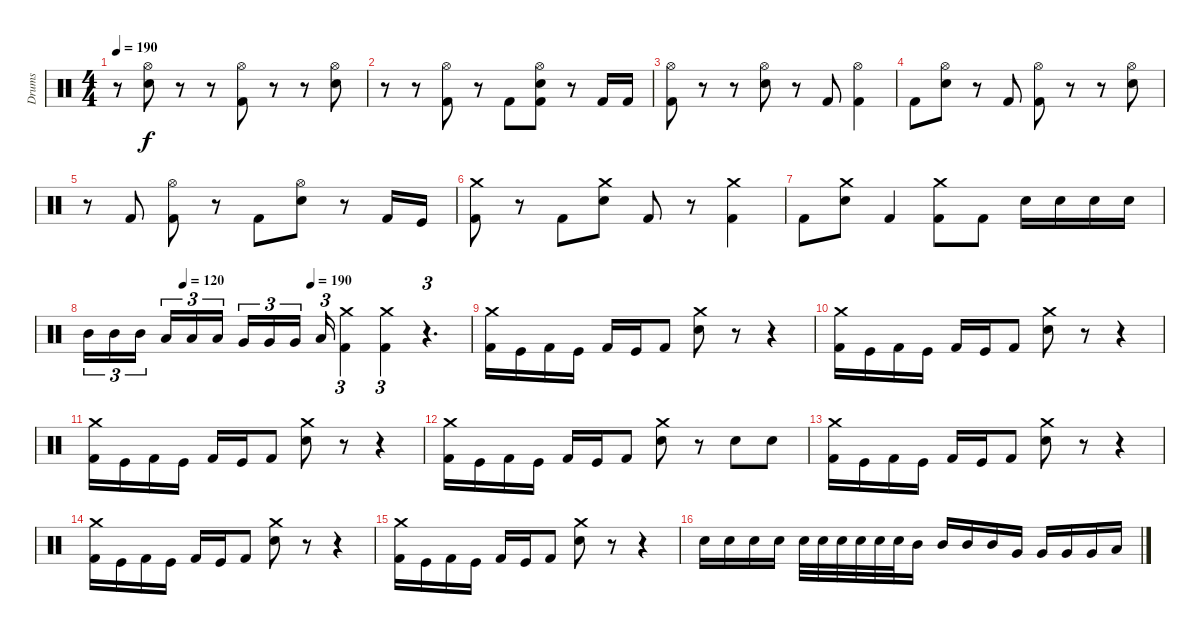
\track ("Drums" "Drums") {instrument percussion}
\staff {score}
\articulation defaults
\ts (4 4)
\tempo 190
\clef neutral
\ks c
r.8{dy f} ("Hi-Hat (open)" "Electric Snare (hit)").8 r.8 r.8 ("Hi-Hat (open)" "Kick (hit) 2").8 r.8 r.8 ("Hi-Hat (open)" "Electric Snare (hit)").8 |
r.8 r.8 ("Hi-Hat (open)" "Kick (hit) 2").8 r.8 "Kick (hit) 2".8 ("Hi-Hat (open)" "Electric Snare (hit)" "Kick (hit) 2").8 r.8 "Kick (hit) 2".16 "Kick (hit) 2".16 |
("Hi-Hat (open)" "Kick (hit) 2").8 r.8 r.8 ("Hi-Hat (open)" "Electric Snare (hit)").8 r.8 "Kick (hit) 2".8 ("Hi-Hat (open)" "Kick (hit) 2").4 |
"Kick (hit) 2".8 ("Hi-Hat (open)" "Electric Snare (hit)").8 r.8 "Kick (hit) 2".8 ("Hi-Hat (open)" "Kick (hit) 2").8 r.8 r.8 ("Hi-Hat (open)" "Electric Snare (hit)").8 |
r.8 "Kick (hit) 2".8 ("Hi-Hat (open)" "Kick (hit) 2").8 r.8 "Kick (hit) 2".8 ("Hi-Hat (open)" "Electric Snare (hit)").8 r.8 "Kick (hit) 2".16 "Kick (hit)".16 |
("Crash medium (hit)" "Kick (hit) 2").8 r.8 "Kick (hit) 2".8 ("Crash medium (hit)" "Electric Snare (hit)").8 "Kick (hit) 2".8 r.8 ("Crash medium (hit)" "Kick (hit) 2").4 |
"Kick (hit) 2".8 ("Crash medium (hit)" "Electric Snare (hit)").8 "Kick (hit) 2".4 ("Crash medium (hit)" "Kick (hit) 2").8 "Kick (hit) 2".8 "Electric Snare (hit)".16 "Electric Snare (hit)".16 "Electric Snare (hit)".16 "Electric Snare (hit)".16 |
\tempo (120 0.25)
\tempo (190 0.5833333333333334)
"Mid Tom (hit)".16{tu (3 2)} "Mid Tom (hit)".16{tu (3 2)} "Mid Tom (hit)".16{tu (3 2)} "Low Tom (hit)".16{tu (3 2)} "Low Tom (hit)".16{tu (3 2)} "Low Tom (hit)".16{tu (3 2)} "Very Low Tom (hit)".16{tu (3 2)} "Very Low Tom (hit)".16{tu (3 2)} "Very Low Tom (hit)".16{tu (3 2)} "Low Floor Tom (hit)".16{tu (3 2)} ("Crash medium (hit)" "Kick (hit) 2").4{tu (3 2)} ("Crash medium (hit)" "Kick (hit) 2").4{tu (3 2)} r.4{d tu (3 2)} |
("Crash medium (hit)" "Kick (hit) 2").16 "Kick (hit)".16 "Kick (hit) 2".16 "Kick (hit)".16 "Kick (hit) 2".16 "Kick (hit)".16 "Kick (hit) 2".8 ("Crash medium (hit)" "Electric Snare (hit)").8 r.8 r.4 |
("Crash medium (hit)" "Kick (hit) 2").16 "Kick (hit)".16 "Kick (hit) 2".16 "Kick (hit)".16 "Kick (hit) 2".16 "Kick (hit)".16 "Kick (hit) 2".8 ("Crash medium (hit)" "Electric Snare (hit)").8 r.8 r.4 |
("Crash medium (hit)" "Kick (hit) 2").16 "Kick (hit)".16 "Kick (hit) 2".16 "Kick (hit)".16 "Kick (hit) 2".16 "Kick (hit)".16 "Kick (hit) 2".8 ("Crash medium (hit)" "Electric Snare (hit)").8 r.8 r.4 |
("Crash medium (hit)" "Kick (hit) 2").16 "Kick (hit)".16 "Kick (hit) 2".16 "Kick (hit)".16 "Kick (hit) 2".16 "Kick (hit)".16 "Kick (hit) 2".8 ("Crash medium (hit)" "Electric Snare (hit)").8 r.8 "Electric Snare (hit)".8 "Electric Snare (hit)".8 |
("Crash medium (hit)" "Kick (hit) 2").16 "Kick (hit)".16 "Kick (hit) 2".16 "Kick (hit)".16 "Kick (hit) 2".16 "Kick (hit)".16 "Kick (hit) 2".8 ("Crash medium (hit)" "Electric Snare (hit)").8 r.8 r.4 |
("Crash medium (hit)" "Kick (hit) 2").16 "Kick (hit)".16 "Kick (hit) 2".16 "Kick (hit)".16 "Kick (hit) 2".16 "Kick (hit)".16 "Kick (hit) 2".8 ("Crash medium (hit)" "Electric Snare (hit)").8 r.8 r.4 |
("Crash medium (hit)" "Kick (hit) 2").16 "Kick (hit)".16 "Kick (hit) 2".16 "Kick (hit)".16 "Kick (hit) 2".16 "Kick (hit)".16 "Kick (hit) 2".8 ("Crash medium (hit)" "Electric Snare (hit)").8 r.8 r.4 |
"Electric Snare (hit)".16 "Electric Snare (hit)".16 "Electric Snare (hit)".16 "Electric Snare (hit)".16 "Electric Snare (hit)".32 "Electric Snare (hit)".32 "Electric Snare (hit)".32 "Electric Snare (hit)".32 "Electric Snare (hit)".32 "Electric Snare (hit)".32 "Mid Tom (hit)".16 "Mid Tom (hit)".16 "Mid Tom (hit)".16 "Mid Tom (hit)".16 "Very Low Tom (hit)".16 "Very Low Tom (hit)".16 "Very Low Tom (hit)".16 "Very Low Tom (hit)".16 "Low Floor Tom (hit)".16
